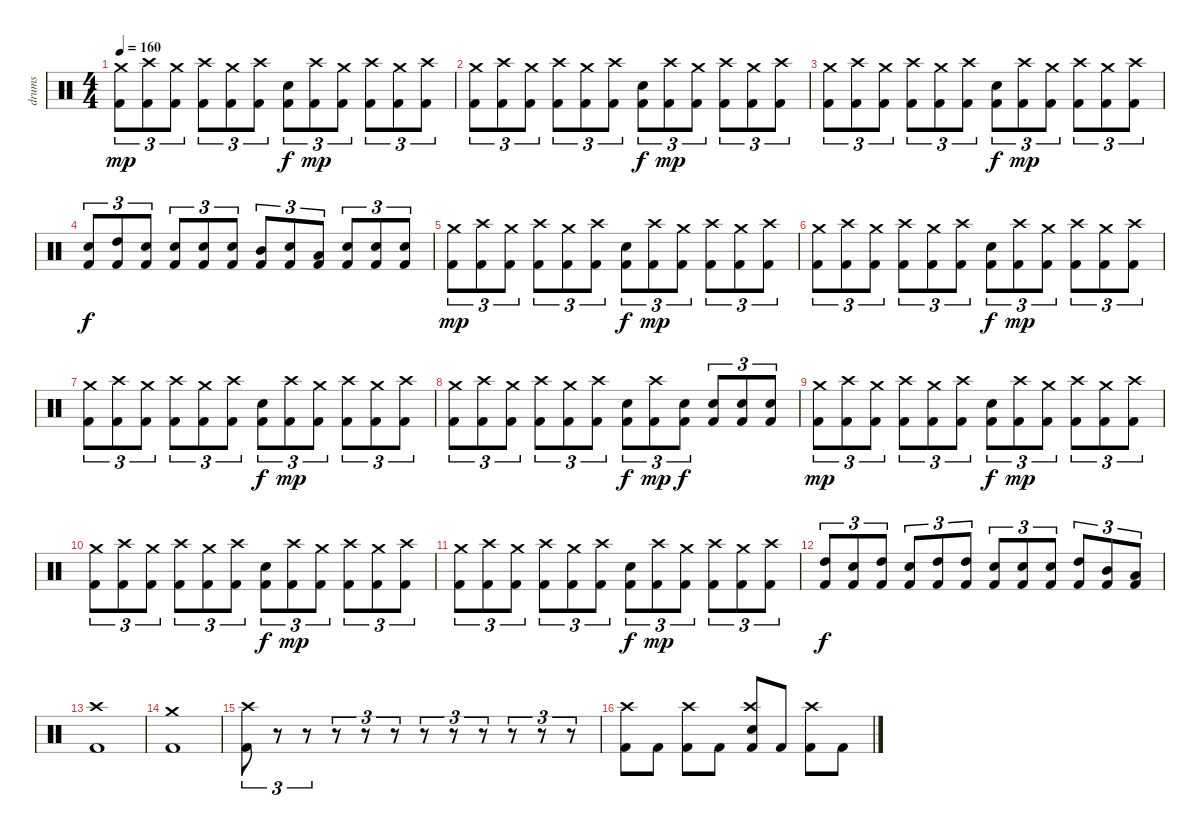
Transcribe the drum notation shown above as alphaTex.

\track ("drums" "drums") {instrument percussion}
\staff {score}
\articulation defaults
\ts (4 4)
\tempo 160
\clef neutral
\ks c
("Crash medium (hit)" "Kick (hit) 2").8{tu (3 2) dy mp} ("Crash high (hit)" "Kick (hit) 2").8{tu (3 2)} ("Crash medium (hit)" "Kick (hit) 2").8{tu (3 2)} ("Crash high (hit)" "Kick (hit) 2").8{tu (3 2)} ("Crash medium (hit)" "Kick (hit) 2").8{tu (3 2)} ("Crash high (hit)" "Kick (hit) 2").8{tu (3 2)} ("Electric Snare (hit)" "Kick (hit) 2").8{tu (3 2) dy f} ("Crash high (hit)" "Kick (hit) 2").8{tu (3 2) dy mp} ("Crash medium (hit)" "Kick (hit) 2").8{tu (3 2)} ("Crash high (hit)" "Kick (hit) 2").8{tu (3 2)} ("Crash medium (hit)" "Kick (hit) 2").8{tu (3 2)} ("Crash high (hit)" "Kick (hit) 2").8{tu (3 2)} |
("Crash medium (hit)" "Kick (hit) 2").8{tu (3 2)} ("Crash high (hit)" "Kick (hit) 2").8{tu (3 2)} ("Crash medium (hit)" "Kick (hit) 2").8{tu (3 2)} ("Crash high (hit)" "Kick (hit) 2").8{tu (3 2)} ("Crash medium (hit)" "Kick (hit) 2").8{tu (3 2)} ("Crash high (hit)" "Kick (hit) 2").8{tu (3 2)} ("Electric Snare (hit)" "Kick (hit) 2").8{tu (3 2) dy f} ("Crash high (hit)" "Kick (hit) 2").8{tu (3 2) dy mp} ("Crash medium (hit)" "Kick (hit) 2").8{tu (3 2)} ("Crash high (hit)" "Kick (hit) 2").8{tu (3 2)} ("Crash medium (hit)" "Kick (hit) 2").8{tu (3 2)} ("Crash high (hit)" "Kick (hit) 2").8{tu (3 2)} |
("Crash medium (hit)" "Kick (hit) 2").8{tu (3 2)} ("Crash high (hit)" "Kick (hit) 2").8{tu (3 2)} ("Crash medium (hit)" "Kick (hit) 2").8{tu (3 2)} ("Crash high (hit)" "Kick (hit) 2").8{tu (3 2)} ("Crash medium (hit)" "Kick (hit) 2").8{tu (3 2)} ("Crash high (hit)" "Kick (hit) 2").8{tu (3 2)} ("Electric Snare (hit)" "Kick (hit) 2").8{tu (3 2) dy f} ("Crash high (hit)" "Kick (hit) 2").8{tu (3 2) dy mp} ("Crash medium (hit)" "Kick (hit) 2").8{tu (3 2)} ("Crash high (hit)" "Kick (hit) 2").8{tu (3 2)} ("Crash medium (hit)" "Kick (hit) 2").8{tu (3 2)} ("Crash high (hit)" "Kick (hit) 2").8{tu (3 2)} |
("Electric Snare (hit)" "Kick (hit) 2").8{tu (3 2) dy f} ("High Tom (hit)" "Kick (hit) 2").8{tu (3 2)} ("Electric Snare (hit)" "Kick (hit) 2").8{tu (3 2)} ("Electric Snare (hit)" "Kick (hit) 2").8{tu (3 2)} ("Electric Snare (hit)" "Kick (hit) 2").8{tu (3 2)} ("Electric Snare (hit)" "Kick (hit) 2").8{tu (3 2)} ("Mid Tom (hit)" "Kick (hit) 2").8{tu (3 2)} ("Electric Snare (hit)" "Kick (hit) 2").8{tu (3 2)} ("Low Tom (hit)" "Kick (hit) 2").8{tu (3 2)} ("Electric Snare (hit)" "Kick (hit) 2").8{tu (3 2)} ("Electric Snare (hit)" "Kick (hit) 2").8{tu (3 2)} ("Electric Snare (hit)" "Kick (hit) 2").8{tu (3 2)} |
("Crash medium (hit)" "Kick (hit) 2").8{tu (3 2) dy mp} ("Crash high (hit)" "Kick (hit) 2").8{tu (3 2)} ("Crash medium (hit)" "Kick (hit) 2").8{tu (3 2)} ("Crash high (hit)" "Kick (hit) 2").8{tu (3 2)} ("Crash medium (hit)" "Kick (hit) 2").8{tu (3 2)} ("Crash high (hit)" "Kick (hit) 2").8{tu (3 2)} ("Electric Snare (hit)" "Kick (hit) 2").8{tu (3 2) dy f} ("Crash high (hit)" "Kick (hit) 2").8{tu (3 2) dy mp} ("Crash medium (hit)" "Kick (hit) 2").8{tu (3 2)} ("Crash high (hit)" "Kick (hit) 2").8{tu (3 2)} ("Crash medium (hit)" "Kick (hit) 2").8{tu (3 2)} ("Crash high (hit)" "Kick (hit) 2").8{tu (3 2)} |
("Crash medium (hit)" "Kick (hit) 2").8{tu (3 2)} ("Crash high (hit)" "Kick (hit) 2").8{tu (3 2)} ("Crash medium (hit)" "Kick (hit) 2").8{tu (3 2)} ("Crash high (hit)" "Kick (hit) 2").8{tu (3 2)} ("Crash medium (hit)" "Kick (hit) 2").8{tu (3 2)} ("Crash high (hit)" "Kick (hit) 2").8{tu (3 2)} ("Electric Snare (hit)" "Kick (hit) 2").8{tu (3 2) dy f} ("Crash high (hit)" "Kick (hit) 2").8{tu (3 2) dy mp} ("Crash medium (hit)" "Kick (hit) 2").8{tu (3 2)} ("Crash high (hit)" "Kick (hit) 2").8{tu (3 2)} ("Crash medium (hit)" "Kick (hit) 2").8{tu (3 2)} ("Crash high (hit)" "Kick (hit) 2").8{tu (3 2)} |
("Crash medium (hit)" "Kick (hit) 2").8{tu (3 2)} ("Crash high (hit)" "Kick (hit) 2").8{tu (3 2)} ("Crash medium (hit)" "Kick (hit) 2").8{tu (3 2)} ("Crash high (hit)" "Kick (hit) 2").8{tu (3 2)} ("Crash medium (hit)" "Kick (hit) 2").8{tu (3 2)} ("Crash high (hit)" "Kick (hit) 2").8{tu (3 2)} ("Electric Snare (hit)" "Kick (hit) 2").8{tu (3 2) dy f} ("Crash high (hit)" "Kick (hit) 2").8{tu (3 2) dy mp} ("Crash medium (hit)" "Kick (hit) 2").8{tu (3 2)} ("Crash high (hit)" "Kick (hit) 2").8{tu (3 2)} ("Crash medium (hit)" "Kick (hit) 2").8{tu (3 2)} ("Crash high (hit)" "Kick (hit) 2").8{tu (3 2)} |
("Crash medium (hit)" "Kick (hit) 2").8{tu (3 2)} ("Crash high (hit)" "Kick (hit) 2").8{tu (3 2)} ("Crash medium (hit)" "Kick (hit) 2").8{tu (3 2)} ("Crash high (hit)" "Kick (hit) 2").8{tu (3 2)} ("Crash medium (hit)" "Kick (hit) 2").8{tu (3 2)} ("Crash high (hit)" "Kick (hit) 2").8{tu (3 2)} ("Electric Snare (hit)" "Kick (hit) 2").8{tu (3 2) dy f} ("Crash high (hit)" "Kick (hit) 2").8{tu (3 2) dy mp} ("Electric Snare (hit)" "Kick (hit) 2").8{tu (3 2) dy f} ("Electric Snare (hit)" "Kick (hit) 2").8{tu (3 2)} ("Electric Snare (hit)" "Kick (hit) 2").8{tu (3 2)} ("Electric Snare (hit)" "Kick (hit) 2").8{tu (3 2)} |
("Crash medium (hit)" "Kick (hit) 2").8{tu (3 2) dy mp} ("Crash high (hit)" "Kick (hit) 2").8{tu (3 2)} ("Crash medium (hit)" "Kick (hit) 2").8{tu (3 2)} ("Crash high (hit)" "Kick (hit) 2").8{tu (3 2)} ("Crash medium (hit)" "Kick (hit) 2").8{tu (3 2)} ("Crash high (hit)" "Kick (hit) 2").8{tu (3 2)} ("Electric Snare (hit)" "Kick (hit) 2").8{tu (3 2) dy f} ("Crash high (hit)" "Kick (hit) 2").8{tu (3 2) dy mp} ("Crash medium (hit)" "Kick (hit) 2").8{tu (3 2)} ("Crash high (hit)" "Kick (hit) 2").8{tu (3 2)} ("Crash medium (hit)" "Kick (hit) 2").8{tu (3 2)} ("Crash high (hit)" "Kick (hit) 2").8{tu (3 2)} |
("Crash medium (hit)" "Kick (hit) 2").8{tu (3 2)} ("Crash high (hit)" "Kick (hit) 2").8{tu (3 2)} ("Crash medium (hit)" "Kick (hit) 2").8{tu (3 2)} ("Crash high (hit)" "Kick (hit) 2").8{tu (3 2)} ("Crash medium (hit)" "Kick (hit) 2").8{tu (3 2)} ("Crash high (hit)" "Kick (hit) 2").8{tu (3 2)} ("Electric Snare (hit)" "Kick (hit) 2").8{tu (3 2) dy f} ("Crash high (hit)" "Kick (hit) 2").8{tu (3 2) dy mp} ("Crash medium (hit)" "Kick (hit) 2").8{tu (3 2)} ("Crash high (hit)" "Kick (hit) 2").8{tu (3 2)} ("Crash medium (hit)" "Kick (hit) 2").8{tu (3 2)} ("Crash high (hit)" "Kick (hit) 2").8{tu (3 2)} |
("Crash medium (hit)" "Kick (hit) 2").8{tu (3 2)} ("Crash high (hit)" "Kick (hit) 2").8{tu (3 2)} ("Crash medium (hit)" "Kick (hit) 2").8{tu (3 2)} ("Crash high (hit)" "Kick (hit) 2").8{tu (3 2)} ("Crash medium (hit)" "Kick (hit) 2").8{tu (3 2)} ("Crash high (hit)" "Kick (hit) 2").8{tu (3 2)} ("Electric Snare (hit)" "Kick (hit) 2").8{tu (3 2) dy f} ("Crash high (hit)" "Kick (hit) 2").8{tu (3 2) dy mp} ("Crash medium (hit)" "Kick (hit) 2").8{tu (3 2)} ("Crash high (hit)" "Kick (hit) 2").8{tu (3 2)} ("Crash medium (hit)" "Kick (hit) 2").8{tu (3 2)} ("Crash high (hit)" "Kick (hit) 2").8{tu (3 2)} |
("High Tom (hit)" "Kick (hit) 2").8{tu (3 2) dy f} ("Electric Snare (hit)" "Kick (hit) 2").8{tu (3 2)} ("High Tom (hit)" "Kick (hit) 2").8{tu (3 2)} ("Electric Snare (hit)" "Kick (hit) 2").8{tu (3 2)} ("High Tom (hit)" "Kick (hit) 2").8{tu (3 2)} ("High Tom (hit)" "Kick (hit) 2").8{tu (3 2)} ("Electric Snare (hit)" "Kick (hit) 2").8{tu (3 2)} ("Electric Snare (hit)" "Kick (hit) 2").8{tu (3 2)} ("Electric Snare (hit)" "Kick (hit) 2").8{tu (3 2)} ("High Tom (hit)" "Kick (hit) 2").8{tu (3 2)} ("Mid Tom (hit)" "Kick (hit) 2").8{tu (3 2)} ("Low Tom (hit)" "Kick (hit) 2").8{tu (3 2)} |
("Crash high (hit)" "Kick (hit) 2").1 |
("Crash medium (hit)" "Kick (hit) 2").1 |
("Crash high (hit)" "Kick (hit) 2").8{tu (3 2)} r.8{tu (3 2)} r.8{tu (3 2)} r.8{tu (3 2)} r.8{tu (3 2)} r.8{tu (3 2)} r.8{tu (3 2)} r.8{tu (3 2)} r.8{tu (3 2)} r.8{tu (3 2)} r.8{tu (3 2)} r.8{tu (3 2)} |
("Crash high (hit)" "Kick (hit) 2").8 "Kick (hit) 2".8 ("Crash high (hit)" "Kick (hit) 2").8 "Kick (hit) 2".8 ("Crash high (hit)" "Electric Snare (hit)" "Kick (hit) 2").8 "Kick (hit) 2".8 ("Crash high (hit)" "Kick (hit) 2").8 "Kick (hit) 2".8
